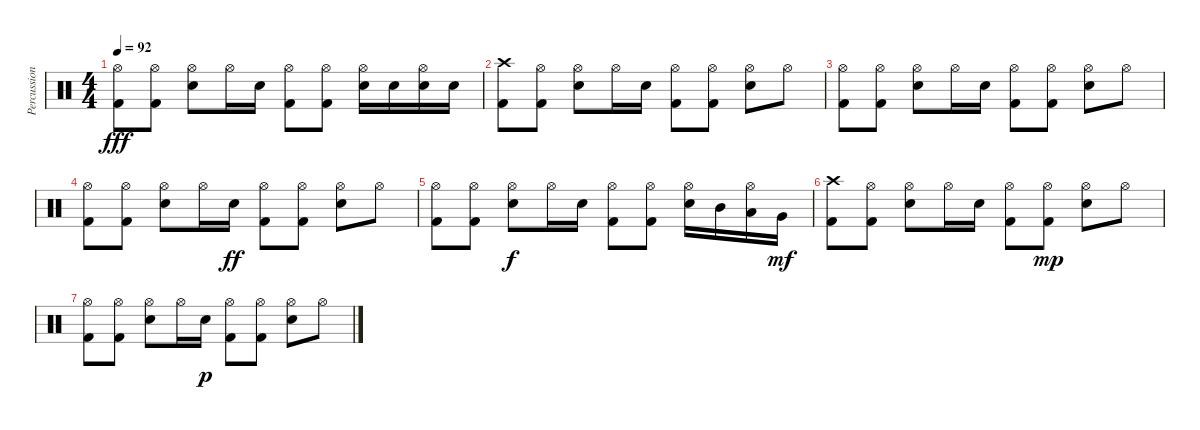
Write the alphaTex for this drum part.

\track ("Percussions" "Percussion") {instrument percussion}
\staff {score}
\articulation defaults
\ts (4 4)
\tempo 92
\clef neutral
\ks c
("Kick (hit) 2" "Hi-Hat (open)").8{dy fff} ("Kick (hit) 2" "Hi-Hat (open)").8 ("Snare (hit) 2" "Hi-Hat (open)").8 "Hi-Hat (open)".16 "Snare (hit) 2".16 ("Kick (hit) 2" "Hi-Hat (open)").8 ("Kick (hit) 2" "Hi-Hat (open)").8 ("Snare (hit) 2" "Hi-Hat (open)").16 "Snare (hit) 2".16 ("Snare (hit) 2" "Hi-Hat (open)").16 "Snare (hit) 2".16 |
("Kick (hit) 2" "Crash high (hit)").8 ("Kick (hit) 2" "Hi-Hat (open)").8 ("Snare (hit) 2" "Hi-Hat (open)").8 "Hi-Hat (open)".16 "Snare (hit) 2".16 ("Kick (hit) 2" "Hi-Hat (open)").8 ("Kick (hit) 2" "Hi-Hat (open)").8 ("Snare (hit) 2" "Hi-Hat (open)").8 "Hi-Hat (open)".8 |
("Kick (hit) 2" "Hi-Hat (open)").8 ("Kick (hit) 2" "Hi-Hat (open)").8 ("Snare (hit) 2" "Hi-Hat (open)").8 "Hi-Hat (open)".16 "Snare (hit) 2".16 ("Kick (hit) 2" "Hi-Hat (open)").8 ("Kick (hit) 2" "Hi-Hat (open)").8 ("Snare (hit) 2" "Hi-Hat (open)").8 "Hi-Hat (open)".8 |
("Kick (hit) 2" "Hi-Hat (open)").8 ("Kick (hit) 2" "Hi-Hat (open)").8 ("Snare (hit) 2" "Hi-Hat (open)").8 "Hi-Hat (open)".16 "Snare (hit) 2".16{dy ff} ("Kick (hit) 2" "Hi-Hat (open)").8 ("Kick (hit) 2" "Hi-Hat (open)").8 ("Snare (hit) 2" "Hi-Hat (open)").8 "Hi-Hat (open)".8 |
("Kick (hit) 2" "Hi-Hat (open)").8 ("Kick (hit) 2" "Hi-Hat (open)").8 ("Snare (hit) 2" "Hi-Hat (open)").8{dy f} "Hi-Hat (open)".16 "Snare (hit) 2".16 ("Kick (hit) 2" "Hi-Hat (open)").8 ("Kick (hit) 2" "Hi-Hat (open)").8 ("Snare (hit) 2" "Hi-Hat (open)").16 "Mid Tom (hit)".16 ("Low Tom (hit)" "Hi-Hat (open)").16 "Very Low Tom (hit)".16{dy mf} |
("Kick (hit) 2" "Crash high (hit)").8 ("Kick (hit) 2" "Hi-Hat (open)").8 ("Snare (hit) 2" "Hi-Hat (open)").8 "Hi-Hat (open)".16 "Snare (hit) 2".16 ("Kick (hit) 2" "Hi-Hat (open)").8 ("Kick (hit) 2" "Hi-Hat (open)").8{dy mp} ("Snare (hit) 2" "Hi-Hat (open)").8 "Hi-Hat (open)".8 |
("Kick (hit) 2" "Hi-Hat (open)").8 ("Kick (hit) 2" "Hi-Hat (open)").8 ("Snare (hit) 2" "Hi-Hat (open)").8 "Hi-Hat (open)".16 "Snare (hit) 2".16{dy p} ("Kick (hit) 2" "Hi-Hat (open)").8 ("Kick (hit) 2" "Hi-Hat (open)").8 ("Snare (hit) 2" "Hi-Hat (open)").8 "Hi-Hat (open)".8
